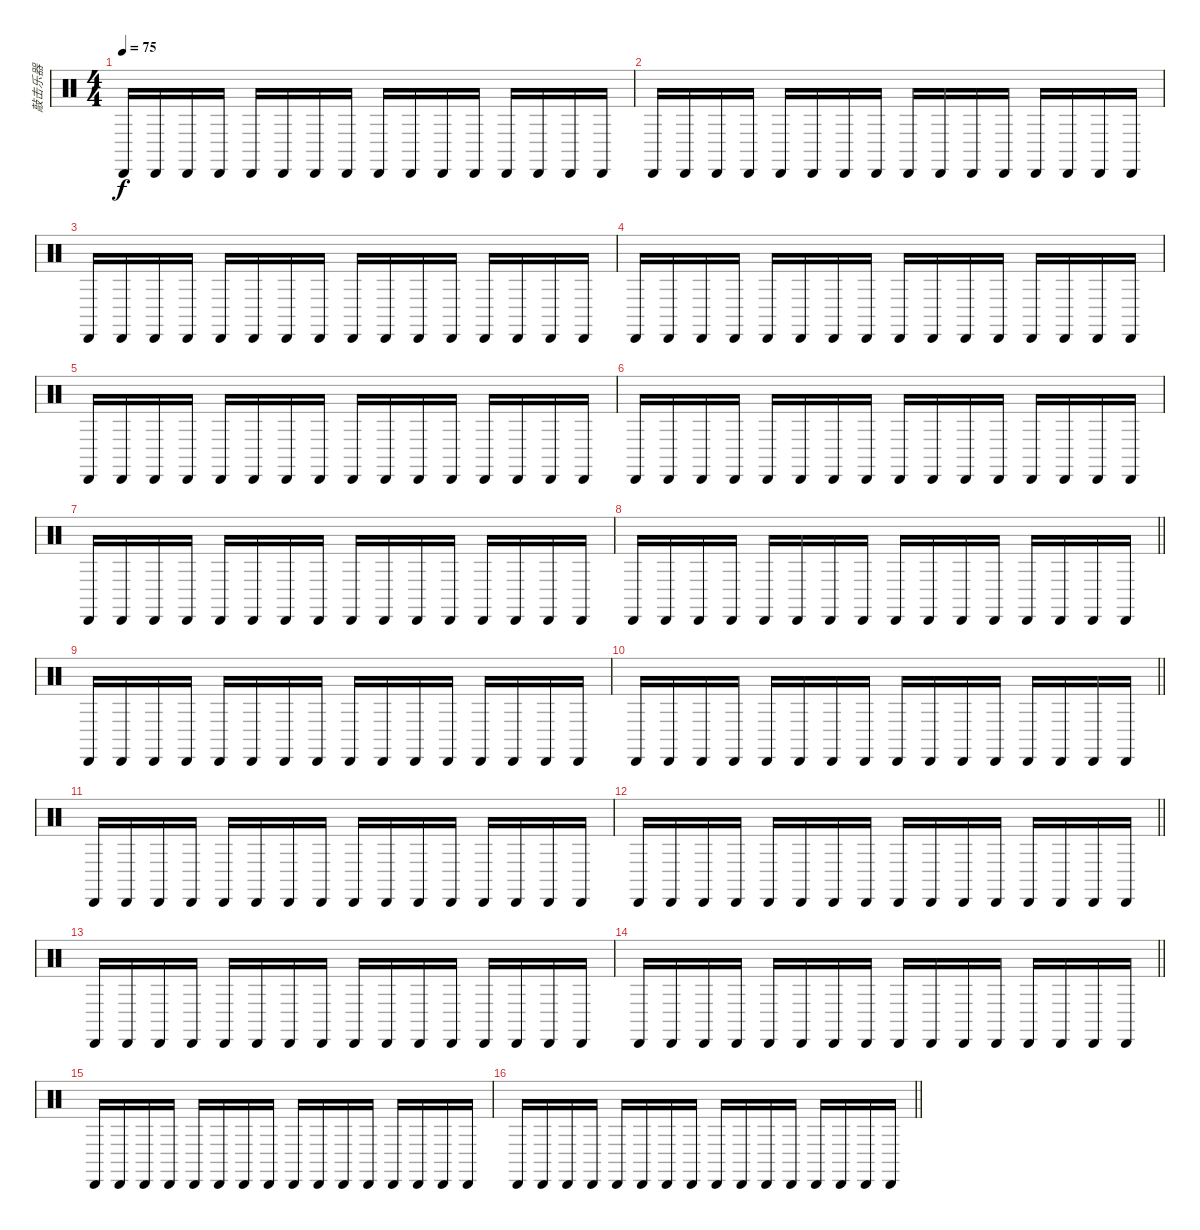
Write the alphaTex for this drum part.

\track ("敲击乐器" "敲击乐器") {instrument percussion}
\staff {score}
\articulation defaults
\ts (4 4)
\tempo 75
\clef neutral
\ks c "Cabasa (hit)".16{dy f} "Cabasa (hit)".16 "Cabasa (hit)".16 "Cabasa (hit)".16 "Cabasa (hit)".16 "Cabasa (hit)".16 "Cabasa (hit)".16 "Cabasa (hit)".16 "Cabasa (hit)".16 "Cabasa (hit)".16 "Cabasa (hit)".16 "Cabasa (hit)".16 "Cabasa (hit)".16 "Cabasa (hit)".16 "Cabasa (hit)".16 "Cabasa (hit)".16
|
"Cabasa (hit)".16 "Cabasa (hit)".16 "Cabasa (hit)".16 "Cabasa (hit)".16 "Cabasa (hit)".16 "Cabasa (hit)".16 "Cabasa (hit)".16 "Cabasa (hit)".16 "Cabasa (hit)".16 "Cabasa (hit)".16 "Cabasa (hit)".16 "Cabasa (hit)".16 "Cabasa (hit)".16 "Cabasa (hit)".16 "Cabasa (hit)".16 "Cabasa (hit)".16 |
"Cabasa (hit)".16 "Cabasa (hit)".16 "Cabasa (hit)".16 "Cabasa (hit)".16 "Cabasa (hit)".16 "Cabasa (hit)".16 "Cabasa (hit)".16 "Cabasa (hit)".16 "Cabasa (hit)".16 "Cabasa (hit)".16 "Cabasa (hit)".16 "Cabasa (hit)".16 "Cabasa (hit)".16 "Cabasa (hit)".16 "Cabasa (hit)".16 "Cabasa (hit)".16 |
"Cabasa (hit)".16 "Cabasa (hit)".16 "Cabasa (hit)".16 "Cabasa (hit)".16 "Cabasa (hit)".16 "Cabasa (hit)".16 "Cabasa (hit)".16 "Cabasa (hit)".16 "Cabasa (hit)".16 "Cabasa (hit)".16 "Cabasa (hit)".16 "Cabasa (hit)".16 "Cabasa (hit)".16 "Cabasa (hit)".16 "Cabasa (hit)".16 "Cabasa (hit)".16 |
"Cabasa (hit)".16 "Cabasa (hit)".16 "Cabasa (hit)".16 "Cabasa (hit)".16 "Cabasa (hit)".16 "Cabasa (hit)".16 "Cabasa (hit)".16 "Cabasa (hit)".16 "Cabasa (hit)".16 "Cabasa (hit)".16 "Cabasa (hit)".16 "Cabasa (hit)".16 "Cabasa (hit)".16 "Cabasa (hit)".16 "Cabasa (hit)".16 "Cabasa (hit)".16 |
"Cabasa (hit)".16 "Cabasa (hit)".16 "Cabasa (hit)".16 "Cabasa (hit)".16 "Cabasa (hit)".16 "Cabasa (hit)".16 "Cabasa (hit)".16 "Cabasa (hit)".16 "Cabasa (hit)".16 "Cabasa (hit)".16 "Cabasa (hit)".16 "Cabasa (hit)".16 "Cabasa (hit)".16 "Cabasa (hit)".16 "Cabasa (hit)".16 "Cabasa (hit)".16 |
"Cabasa (hit)".16 "Cabasa (hit)".16 "Cabasa (hit)".16 "Cabasa (hit)".16 "Cabasa (hit)".16 "Cabasa (hit)".16 "Cabasa (hit)".16 "Cabasa (hit)".16 "Cabasa (hit)".16 "Cabasa (hit)".16 "Cabasa (hit)".16 "Cabasa (hit)".16 "Cabasa (hit)".16 "Cabasa (hit)".16 "Cabasa (hit)".16 "Cabasa (hit)".16 |
\barLineRight lightlight "Cabasa (hit)".16 "Cabasa (hit)".16 "Cabasa (hit)".16 "Cabasa (hit)".16 "Cabasa (hit)".16 "Cabasa (hit)".16 "Cabasa (hit)".16 "Cabasa (hit)".16 "Cabasa (hit)".16 "Cabasa (hit)".16 "Cabasa (hit)".16 "Cabasa (hit)".16 "Cabasa (hit)".16 "Cabasa (hit)".16 "Cabasa (hit)".16 "Cabasa (hit)".16
|
"Cabasa (hit)".16 "Cabasa (hit)".16 "Cabasa (hit)".16 "Cabasa (hit)".16 "Cabasa (hit)".16 "Cabasa (hit)".16 "Cabasa (hit)".16 "Cabasa (hit)".16 "Cabasa (hit)".16 "Cabasa (hit)".16 "Cabasa (hit)".16 "Cabasa (hit)".16 "Cabasa (hit)".16 "Cabasa (hit)".16 "Cabasa (hit)".16 "Cabasa (hit)".16 |
\barLineRight lightlight "Cabasa (hit)".16 "Cabasa (hit)".16 "Cabasa (hit)".16 "Cabasa (hit)".16 "Cabasa (hit)".16 "Cabasa (hit)".16 "Cabasa (hit)".16 "Cabasa (hit)".16 "Cabasa (hit)".16 "Cabasa (hit)".16 "Cabasa (hit)".16 "Cabasa (hit)".16 "Cabasa (hit)".16 "Cabasa (hit)".16 "Cabasa (hit)".16 "Cabasa (hit)".16
|
"Cabasa (hit)".16 "Cabasa (hit)".16 "Cabasa (hit)".16 "Cabasa (hit)".16 "Cabasa (hit)".16 "Cabasa (hit)".16 "Cabasa (hit)".16 "Cabasa (hit)".16 "Cabasa (hit)".16 "Cabasa (hit)".16 "Cabasa (hit)".16 "Cabasa (hit)".16 "Cabasa (hit)".16 "Cabasa (hit)".16 "Cabasa (hit)".16 "Cabasa (hit)".16 |
\barLineRight lightlight "Cabasa (hit)".16 "Cabasa (hit)".16 "Cabasa (hit)".16 "Cabasa (hit)".16 "Cabasa (hit)".16 "Cabasa (hit)".16 "Cabasa (hit)".16 "Cabasa (hit)".16 "Cabasa (hit)".16 "Cabasa (hit)".16 "Cabasa (hit)".16 "Cabasa (hit)".16 "Cabasa (hit)".16 "Cabasa (hit)".16 "Cabasa (hit)".16 "Cabasa (hit)".16
|
"Cabasa (hit)".16 "Cabasa (hit)".16 "Cabasa (hit)".16 "Cabasa (hit)".16 "Cabasa (hit)".16 "Cabasa (hit)".16 "Cabasa (hit)".16 "Cabasa (hit)".16 "Cabasa (hit)".16 "Cabasa (hit)".16 "Cabasa (hit)".16 "Cabasa (hit)".16 "Cabasa (hit)".16 "Cabasa (hit)".16 "Cabasa (hit)".16 "Cabasa (hit)".16 |
\barLineRight lightlight "Cabasa (hit)".16 "Cabasa (hit)".16 "Cabasa (hit)".16 "Cabasa (hit)".16 "Cabasa (hit)".16 "Cabasa (hit)".16 "Cabasa (hit)".16 "Cabasa (hit)".16 "Cabasa (hit)".16 "Cabasa (hit)".16 "Cabasa (hit)".16 "Cabasa (hit)".16 "Cabasa (hit)".16 "Cabasa (hit)".16 "Cabasa (hit)".16 "Cabasa (hit)".16
|
"Cabasa (hit)".16 "Cabasa (hit)".16 "Cabasa (hit)".16 "Cabasa (hit)".16 "Cabasa (hit)".16 "Cabasa (hit)".16 "Cabasa (hit)".16 "Cabasa (hit)".16 "Cabasa (hit)".16 "Cabasa (hit)".16 "Cabasa (hit)".16 "Cabasa (hit)".16 "Cabasa (hit)".16 "Cabasa (hit)".16 "Cabasa (hit)".16 "Cabasa (hit)".16 |
\barLineRight lightlight "Cabasa (hit)".16 "Cabasa (hit)".16 "Cabasa (hit)".16 "Cabasa (hit)".16 "Cabasa (hit)".16 "Cabasa (hit)".16 "Cabasa (hit)".16 "Cabasa (hit)".16 "Cabasa (hit)".16 "Cabasa (hit)".16 "Cabasa (hit)".16 "Cabasa (hit)".16 "Cabasa (hit)".16 "Cabasa (hit)".16 "Cabasa (hit)".16 "Cabasa (hit)".16
